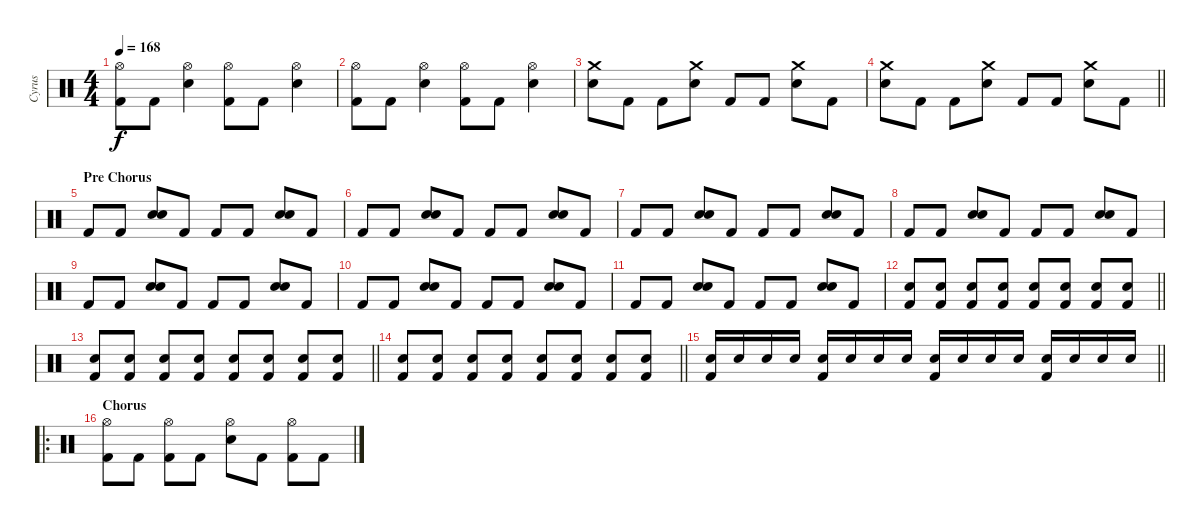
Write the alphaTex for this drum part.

\track ("Cyrus" "Cyrus") {instrument percussion}
\staff {score}
\articulation defaults
\ts (4 4)
\tempo 168
\clef neutral
\ks c
("Hi-Hat (open)" "Kick (hit) 2").8{dy f} "Kick (hit) 2".8 ("Hi-Hat (open)" "Snare (hit) 2").4 ("Hi-Hat (open)" "Kick (hit) 2").8 "Kick (hit) 2".8 ("Hi-Hat (open)" "Snare (hit) 2").4 |
("Hi-Hat (open)" "Kick (hit) 2").8 "Kick (hit) 2".8 ("Hi-Hat (open)" "Snare (hit) 2").4 ("Hi-Hat (open)" "Kick (hit) 2").8 "Kick (hit) 2".8 ("Hi-Hat (open)" "Snare (hit) 2").4 |
("Crash medium (hit)" "Snare (hit) 2").8 "Kick (hit) 2".8 "Kick (hit) 2".8 ("Crash medium (hit)" "Snare (hit) 2").8 "Kick (hit) 2".8 "Kick (hit) 2".8 ("Crash medium (hit)" "Snare (hit) 2").8 "Kick (hit) 2".8 |
\barLineRight lightlight
("Crash medium (hit)" "Snare (hit) 2").8 "Kick (hit) 2".8 "Kick (hit) 2".8 ("Crash medium (hit)" "Snare (hit) 2").8 "Kick (hit) 2".8 "Kick (hit) 2".8 ("Crash medium (hit)" "Snare (hit) 2").8 "Kick (hit) 2".8 |
\section ("" "Pre Chorus")
"Kick (hit) 2".8 "Kick (hit) 2".8 ("Snare (hit) 2" "Snare (hit) 2").8 "Kick (hit) 2".8 "Kick (hit) 2".8 "Kick (hit) 2".8 ("Snare (hit) 2" "Snare (hit) 2").8 "Kick (hit) 2".8 |
"Kick (hit) 2".8 "Kick (hit) 2".8 ("Snare (hit) 2" "Snare (hit) 2").8 "Kick (hit) 2".8 "Kick (hit) 2".8 "Kick (hit) 2".8 ("Snare (hit) 2" "Snare (hit) 2").8 "Kick (hit) 2".8 |
"Kick (hit) 2".8 "Kick (hit) 2".8 ("Snare (hit) 2" "Snare (hit) 2").8 "Kick (hit) 2".8 "Kick (hit) 2".8 "Kick (hit) 2".8 ("Snare (hit) 2" "Snare (hit) 2").8 "Kick (hit) 2".8 |
"Kick (hit) 2".8 "Kick (hit) 2".8 ("Snare (hit) 2" "Snare (hit) 2").8 "Kick (hit) 2".8 "Kick (hit) 2".8 "Kick (hit) 2".8 ("Snare (hit) 2" "Snare (hit) 2").8 "Kick (hit) 2".8 |
"Kick (hit) 2".8 "Kick (hit) 2".8 ("Snare (hit) 2" "Snare (hit) 2").8 "Kick (hit) 2".8 "Kick (hit) 2".8 "Kick (hit) 2".8 ("Snare (hit) 2" "Snare (hit) 2").8 "Kick (hit) 2".8 |
"Kick (hit) 2".8 "Kick (hit) 2".8 ("Snare (hit) 2" "Snare (hit) 2").8 "Kick (hit) 2".8 "Kick (hit) 2".8 "Kick (hit) 2".8 ("Snare (hit) 2" "Snare (hit) 2").8 "Kick (hit) 2".8 |
"Kick (hit) 2".8 "Kick (hit) 2".8 ("Snare (hit) 2" "Snare (hit) 2").8 "Kick (hit) 2".8 "Kick (hit) 2".8 "Kick (hit) 2".8 ("Snare (hit) 2" "Snare (hit) 2").8 "Kick (hit) 2".8 |
\barLineRight lightlight
("Snare (hit) 2" "Kick (hit) 2").8 ("Snare (hit) 2" "Kick (hit) 2").8 ("Snare (hit) 2" "Kick (hit) 2").8 ("Snare (hit) 2" "Kick (hit) 2").8 ("Snare (hit) 2" "Kick (hit) 2").8 ("Snare (hit) 2" "Kick (hit) 2").8 ("Snare (hit) 2" "Kick (hit) 2").8 ("Snare (hit) 2" "Kick (hit) 2").8 |
\barLineRight lightlight
("Snare (hit) 2" "Kick (hit) 2").8 ("Snare (hit) 2" "Kick (hit) 2").8 ("Snare (hit) 2" "Kick (hit) 2").8 ("Snare (hit) 2" "Kick (hit) 2").8 ("Snare (hit) 2" "Kick (hit) 2").8 ("Snare (hit) 2" "Kick (hit) 2").8 ("Snare (hit) 2" "Kick (hit) 2").8 ("Snare (hit) 2" "Kick (hit) 2").8 |
\barLineRight lightlight
("Snare (hit) 2" "Kick (hit) 2").8 ("Snare (hit) 2" "Kick (hit) 2").8 ("Snare (hit) 2" "Kick (hit) 2").8 ("Snare (hit) 2" "Kick (hit) 2").8 ("Snare (hit) 2" "Kick (hit) 2").8 ("Snare (hit) 2" "Kick (hit) 2").8 ("Snare (hit) 2" "Kick (hit) 2").8 ("Snare (hit) 2" "Kick (hit) 2").8 |
\barLineRight lightlight
("Snare (hit) 2" "Kick (hit) 2").16 "Snare (hit) 2".16 "Snare (hit) 2".16 "Snare (hit) 2".16 ("Snare (hit) 2" "Kick (hit) 2").16 "Snare (hit) 2".16 "Snare (hit) 2".16 "Snare (hit) 2".16 ("Snare (hit) 2" "Kick (hit) 2").16 "Snare (hit) 2".16 "Snare (hit) 2".16 "Snare (hit) 2".16 ("Snare (hit) 2" "Kick (hit) 2").16 "Snare (hit) 2".16 "Snare (hit) 2".16 "Snare (hit) 2".16 |
\ro
\section ("" "Chorus")
("Hi-Hat (open)" "Kick (hit) 2").8 "Kick (hit) 2".8 ("Hi-Hat (open)" "Kick (hit) 2").8 "Kick (hit) 2".8 ("Hi-Hat (open)" "Snare (hit) 2").8 "Kick (hit) 2".8 ("Hi-Hat (open)" "Kick (hit) 2").8 "Kick (hit) 2".8
